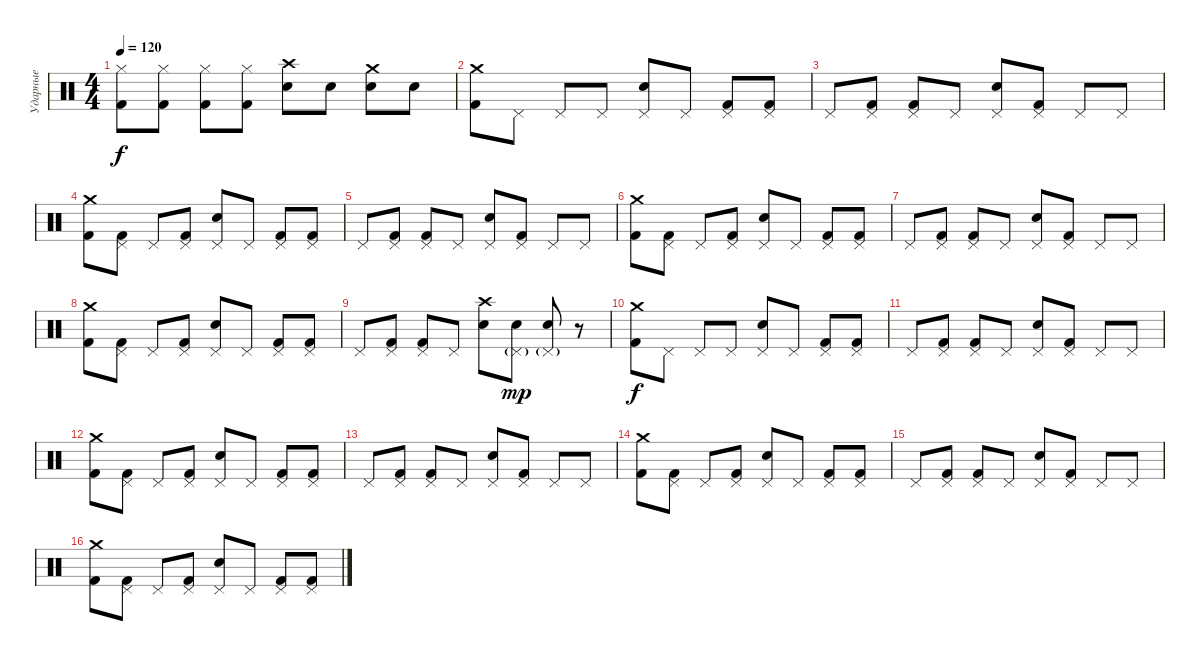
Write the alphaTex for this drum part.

\track ("Ударные" "Ударные") {instrument percussion}
\staff {score}
\articulation defaults
\ts (4 4)
\tempo 120
\clef neutral
\ks c
("Hi-Hat (closed)" "Kick (hit) 2").8{dy f} ("Hi-Hat (closed)" "Kick (hit) 2").8 ("Hi-Hat (closed)" "Kick (hit) 2").8 ("Hi-Hat (closed)" "Kick (hit) 2").8 ("Crash high (hit)" "Snare (hit) 2").8 "Snare (hit) 2".8 ("Crash medium (hit)" "Snare (hit) 2").8 "Snare (hit) 2".8 |
("Crash medium (hit)" "Kick (hit) 2").8 "Pedal Hi-Hat (hit)".8 "Pedal Hi-Hat (hit)".8 "Pedal Hi-Hat (hit)".8 ("Pedal Hi-Hat (hit)" "Snare (hit) 2").8 "Pedal Hi-Hat (hit)".8 ("Pedal Hi-Hat (hit)" "Kick (hit) 2").8 ("Pedal Hi-Hat (hit)" "Kick (hit) 2").8 |
"Pedal Hi-Hat (hit)".8 ("Pedal Hi-Hat (hit)" "Kick (hit) 2").8 ("Pedal Hi-Hat (hit)" "Kick (hit) 2").8 "Pedal Hi-Hat (hit)".8 ("Pedal Hi-Hat (hit)" "Snare (hit) 2").8 ("Pedal Hi-Hat (hit)" "Kick (hit) 2").8 "Pedal Hi-Hat (hit)".8 "Pedal Hi-Hat (hit)".8 |
("Crash medium (hit)" "Kick (hit) 2").8 ("Pedal Hi-Hat (hit)" "Kick (hit) 2").8 "Pedal Hi-Hat (hit)".8 ("Pedal Hi-Hat (hit)" "Kick (hit) 2").8 ("Pedal Hi-Hat (hit)" "Snare (hit) 2").8 "Pedal Hi-Hat (hit)".8 ("Pedal Hi-Hat (hit)" "Kick (hit) 2").8 ("Pedal Hi-Hat (hit)" "Kick (hit) 2").8 |
"Pedal Hi-Hat (hit)".8 ("Pedal Hi-Hat (hit)" "Kick (hit) 2").8 ("Pedal Hi-Hat (hit)" "Kick (hit) 2").8 "Pedal Hi-Hat (hit)".8 ("Pedal Hi-Hat (hit)" "Snare (hit) 2").8 ("Pedal Hi-Hat (hit)" "Kick (hit) 2").8 "Pedal Hi-Hat (hit)".8 "Pedal Hi-Hat (hit)".8 |
("Crash medium (hit)" "Kick (hit) 2").8 ("Pedal Hi-Hat (hit)" "Kick (hit) 2").8 "Pedal Hi-Hat (hit)".8 ("Pedal Hi-Hat (hit)" "Kick (hit) 2").8 ("Pedal Hi-Hat (hit)" "Snare (hit) 2").8 "Pedal Hi-Hat (hit)".8 ("Pedal Hi-Hat (hit)" "Kick (hit) 2").8 ("Pedal Hi-Hat (hit)" "Kick (hit) 2").8 |
"Pedal Hi-Hat (hit)".8 ("Pedal Hi-Hat (hit)" "Kick (hit) 2").8 ("Pedal Hi-Hat (hit)" "Kick (hit) 2").8 "Pedal Hi-Hat (hit)".8 ("Pedal Hi-Hat (hit)" "Snare (hit) 2").8 ("Pedal Hi-Hat (hit)" "Kick (hit) 2").8 "Pedal Hi-Hat (hit)".8 "Pedal Hi-Hat (hit)".8 |
("Crash medium (hit)" "Kick (hit) 2").8 ("Pedal Hi-Hat (hit)" "Kick (hit) 2").8 "Pedal Hi-Hat (hit)".8 ("Pedal Hi-Hat (hit)" "Kick (hit) 2").8 ("Pedal Hi-Hat (hit)" "Snare (hit) 2").8 "Pedal Hi-Hat (hit)".8 ("Pedal Hi-Hat (hit)" "Kick (hit) 2").8 ("Pedal Hi-Hat (hit)" "Kick (hit) 2").8 |
"Pedal Hi-Hat (hit)".8 ("Pedal Hi-Hat (hit)" "Kick (hit) 2").8 ("Pedal Hi-Hat (hit)" "Kick (hit) 2").8 "Pedal Hi-Hat (hit)".8 ("Crash high (hit)" "Snare (hit) 2").8 ("Pedal Hi-Hat (hit)"{g} "Snare (hit) 2").8{dy mp} ("Pedal Hi-Hat (hit)"{g} "Snare (hit) 2").8 r.8 |
("Crash medium (hit)" "Kick (hit) 2").8{dy f} "Pedal Hi-Hat (hit)".8 "Pedal Hi-Hat (hit)".8 "Pedal Hi-Hat (hit)".8 ("Pedal Hi-Hat (hit)" "Snare (hit) 2").8 "Pedal Hi-Hat (hit)".8 ("Pedal Hi-Hat (hit)" "Kick (hit) 2").8 ("Pedal Hi-Hat (hit)" "Kick (hit) 2").8 |
"Pedal Hi-Hat (hit)".8 ("Pedal Hi-Hat (hit)" "Kick (hit) 2").8 ("Pedal Hi-Hat (hit)" "Kick (hit) 2").8 "Pedal Hi-Hat (hit)".8 ("Pedal Hi-Hat (hit)" "Snare (hit) 2").8 ("Pedal Hi-Hat (hit)" "Kick (hit) 2").8 "Pedal Hi-Hat (hit)".8 "Pedal Hi-Hat (hit)".8 |
("Crash medium (hit)" "Kick (hit) 2").8 ("Pedal Hi-Hat (hit)" "Kick (hit) 2").8 "Pedal Hi-Hat (hit)".8 ("Pedal Hi-Hat (hit)" "Kick (hit) 2").8 ("Pedal Hi-Hat (hit)" "Snare (hit) 2").8 "Pedal Hi-Hat (hit)".8 ("Pedal Hi-Hat (hit)" "Kick (hit) 2").8 ("Pedal Hi-Hat (hit)" "Kick (hit) 2").8 |
"Pedal Hi-Hat (hit)".8 ("Pedal Hi-Hat (hit)" "Kick (hit) 2").8 ("Pedal Hi-Hat (hit)" "Kick (hit) 2").8 "Pedal Hi-Hat (hit)".8 ("Pedal Hi-Hat (hit)" "Snare (hit) 2").8 ("Pedal Hi-Hat (hit)" "Kick (hit) 2").8 "Pedal Hi-Hat (hit)".8 "Pedal Hi-Hat (hit)".8 |
("Crash medium (hit)" "Kick (hit) 2").8 ("Pedal Hi-Hat (hit)" "Kick (hit) 2").8 "Pedal Hi-Hat (hit)".8 ("Pedal Hi-Hat (hit)" "Kick (hit) 2").8 ("Pedal Hi-Hat (hit)" "Snare (hit) 2").8 "Pedal Hi-Hat (hit)".8 ("Pedal Hi-Hat (hit)" "Kick (hit) 2").8 ("Pedal Hi-Hat (hit)" "Kick (hit) 2").8 |
"Pedal Hi-Hat (hit)".8 ("Pedal Hi-Hat (hit)" "Kick (hit) 2").8 ("Pedal Hi-Hat (hit)" "Kick (hit) 2").8 "Pedal Hi-Hat (hit)".8 ("Pedal Hi-Hat (hit)" "Snare (hit) 2").8 ("Pedal Hi-Hat (hit)" "Kick (hit) 2").8 "Pedal Hi-Hat (hit)".8 "Pedal Hi-Hat (hit)".8 |
("Crash medium (hit)" "Kick (hit) 2").8 ("Pedal Hi-Hat (hit)" "Kick (hit) 2").8 "Pedal Hi-Hat (hit)".8 ("Pedal Hi-Hat (hit)" "Kick (hit) 2").8 ("Pedal Hi-Hat (hit)" "Snare (hit) 2").8 "Pedal Hi-Hat (hit)".8 ("Pedal Hi-Hat (hit)" "Kick (hit) 2").8 ("Pedal Hi-Hat (hit)" "Kick (hit) 2").8
